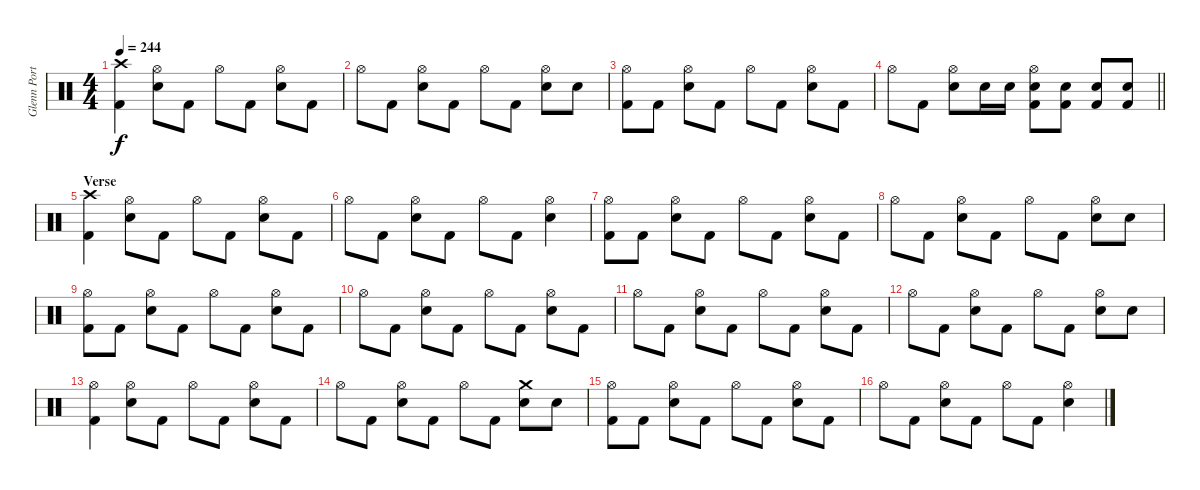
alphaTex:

\track ("Glenn Porter - Drums" "Glenn Port") {instrument percussion}
\staff {score}
\articulation defaults
\ts (4 4)
\tempo 244
\clef neutral
\ks c
("Kick (hit) 2" "Crash high (hit)").4{dy f} ("Snare (hit) 2" "Hi-Hat (open)").8 "Kick (hit) 2".8 "Hi-Hat (open)".8 "Kick (hit) 2".8 ("Snare (hit) 2" "Hi-Hat (open)").8 "Kick (hit) 2".8 |
"Hi-Hat (open)".8 "Kick (hit) 2".8 ("Snare (hit) 2" "Hi-Hat (open)").8 "Kick (hit) 2".8 "Hi-Hat (open)".8 "Kick (hit) 2".8 ("Snare (hit) 2" "Hi-Hat (open)").8 "Snare (hit) 2".8 |
("Kick (hit) 2" "Hi-Hat (open)").8 "Kick (hit) 2".8 ("Snare (hit) 2" "Hi-Hat (open)").8 "Kick (hit) 2".8 "Hi-Hat (open)".8 "Kick (hit) 2".8 ("Snare (hit) 2" "Hi-Hat (open)").8 "Kick (hit) 2".8 |
\barLineRight lightlight "Hi-Hat (open)".8 "Kick (hit) 2".8
("Snare (hit) 2" "Hi-Hat (open)").8 "Snare (hit) 2".16 "Snare (hit) 2".16 ("Snare (hit) 2" "Kick (hit) 2" "Hi-Hat (open)").8 ("Snare (hit) 2" "Kick (hit) 2").8 ("Snare (hit) 2" "Kick (hit) 2").8 ("Snare (hit) 2" "Kick (hit) 2").8 |
\section ("" "Verse")
("Kick (hit) 2" "Crash high (hit)").4 ("Snare (hit) 2" "Hi-Hat (open)").8 "Kick (hit) 2".8 "Hi-Hat (open)".8 "Kick (hit) 2".8 ("Snare (hit) 2" "Hi-Hat (open)").8 "Kick (hit) 2".8 |
"Hi-Hat (open)".8 "Kick (hit) 2".8 ("Snare (hit) 2" "Hi-Hat (open)").8 "Kick (hit) 2".8 "Hi-Hat (open)".8 "Kick (hit) 2".8 ("Snare (hit) 2" "Hi-Hat (open)").4 |
("Kick (hit) 2" "Hi-Hat (open)").8 "Kick (hit) 2".8 ("Snare (hit) 2" "Hi-Hat (open)").8 "Kick (hit) 2".8 "Hi-Hat (open)".8 "Kick (hit) 2".8 ("Snare (hit) 2" "Hi-Hat (open)").8 "Kick (hit) 2".8 |
"Hi-Hat (open)".8 "Kick (hit) 2".8 ("Snare (hit) 2" "Hi-Hat (open)").8 "Kick (hit) 2".8 "Hi-Hat (open)".8 "Kick (hit) 2".8 ("Snare (hit) 2" "Hi-Hat (open)").8 "Snare (hit) 2".8 |
("Kick (hit) 2" "Hi-Hat (open)").8 "Kick (hit) 2".8 ("Snare (hit) 2" "Hi-Hat (open)").8 "Kick (hit) 2".8 "Hi-Hat (open)".8 "Kick (hit) 2".8 ("Snare (hit) 2" "Hi-Hat (open)").8 "Kick (hit) 2".8 |
"Hi-Hat (open)".8 "Kick (hit) 2".8 ("Snare (hit) 2" "Hi-Hat (open)").8 "Kick (hit) 2".8 "Hi-Hat (open)".8 "Kick (hit) 2".8 ("Snare (hit) 2" "Hi-Hat (open)").8 "Kick (hit) 2".8 |
"Hi-Hat (open)".8 "Kick (hit) 2".8 ("Snare (hit) 2" "Hi-Hat (open)").8 "Kick (hit) 2".8 "Hi-Hat (open)".8 "Kick (hit) 2".8 ("Snare (hit) 2" "Hi-Hat (open)").8 "Kick (hit) 2".8 |
"Hi-Hat (open)".8 "Kick (hit) 2".8 ("Snare (hit) 2" "Hi-Hat (open)").8 "Kick (hit) 2".8 "Hi-Hat (open)".8 "Kick (hit) 2".8 ("Snare (hit) 2" "Hi-Hat (open)").8 "Snare (hit) 2".8 |
("Kick (hit) 2" "Hi-Hat (open)").4 ("Snare (hit) 2" "Hi-Hat (open)").8 "Kick (hit) 2".8 "Hi-Hat (open)".8 "Kick (hit) 2".8 ("Snare (hit) 2" "Hi-Hat (open)").8 "Kick (hit) 2".8 |
"Hi-Hat (open)".8 "Kick (hit) 2".8 ("Snare (hit) 2" "Hi-Hat (open)").8 "Kick (hit) 2".8 "Hi-Hat (open)".8 "Kick (hit) 2".8 ("Snare (hit) 2" "Crash medium (hit)").8 "Snare (hit) 2".8 |
("Kick (hit) 2" "Hi-Hat (open)").8 "Kick (hit) 2".8 ("Snare (hit) 2" "Hi-Hat (open)").8 "Kick (hit) 2".8 "Hi-Hat (open)".8 "Kick (hit) 2".8 ("Snare (hit) 2" "Hi-Hat (open)").8 "Kick (hit) 2".8 |
"Hi-Hat (open)".8 "Kick (hit) 2".8 ("Snare (hit) 2" "Hi-Hat (open)").8 "Kick (hit) 2".8 "Hi-Hat (open)".8 "Kick (hit) 2".8 ("Snare (hit) 2" "Hi-Hat (open)").4
